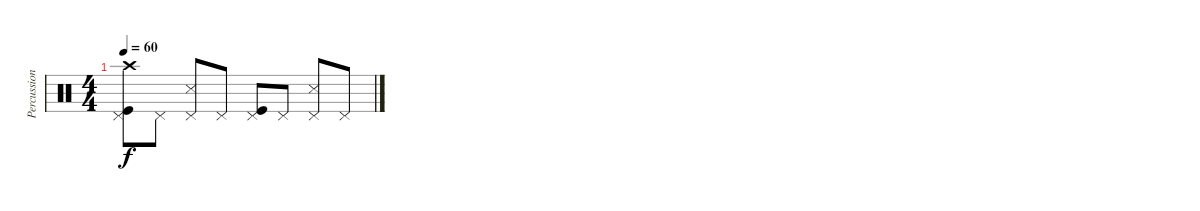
\track ("Percussions" "Percussion") {instrument percussion}
\staff {score}
\articulation defaults
\ts (4 4)
\tempo 60
\clef neutral
\ks c
("Crash high (hit)" "Pedal Hi-Hat (hit)" "Kick (hit)").8{dy f volume 0} "Pedal Hi-Hat (hit)".8 ("Pedal Hi-Hat (hit)" "Snare (side stick) 3").8 "Pedal Hi-Hat (hit)".8 ("Pedal Hi-Hat (hit)" "Kick (hit)").8 "Pedal Hi-Hat (hit)".8 ("Pedal Hi-Hat (hit)" "Snare (side stick) 3").8 "Pedal Hi-Hat (hit)".8
